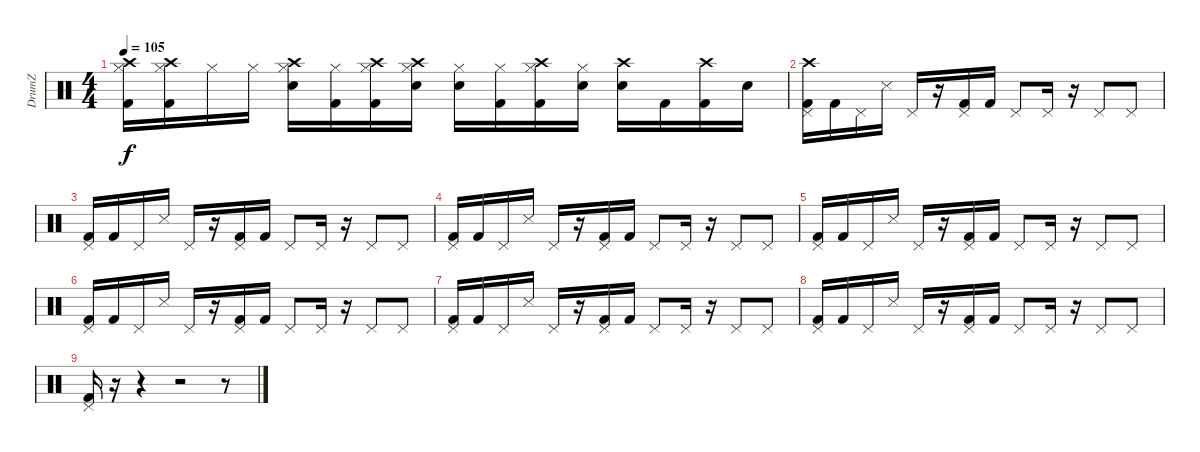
\track ("DrumZ" "DrumZ") {instrument percussion}
\staff {score}
\articulation defaults
\ts (4 4)
\tempo 105
\clef neutral
\ks c
("Crash high (hit)" "Hi-Hat (closed)" "Kick (hit) 2").16{dy f} ("Crash high (hit)" "Hi-Hat (closed)" "Kick (hit) 2").16 "Hi-Hat (closed)".16 "Hi-Hat (closed)".16 ("Crash high (hit)" "Hi-Hat (closed)" "Electric Snare (hit)").16 ("Hi-Hat (closed)" "Kick (hit) 2").16 ("Crash high (hit)" "Hi-Hat (closed)" "Kick (hit) 2").16 ("Crash high (hit)" "Hi-Hat (closed)" "Electric Snare (hit)").16 ("Hi-Hat (closed)" "Electric Snare (hit)").16 ("Hi-Hat (closed)" "Kick (hit) 2").16 ("Crash high (hit)" "Hi-Hat (closed)" "Kick (hit) 2").16 ("Hi-Hat (closed)" "Electric Snare (hit)").16 ("Crash high (hit)" "Electric Snare (hit)").16 "Kick (hit) 2".16 ("Crash high (hit)" "Kick (hit) 2").16 "Electric Snare (hit)".16 |
("Pedal Hi-Hat (hit)" "Crash high (hit)" "Kick (hit) 2").16 "Kick (hit) 2".16 "Pedal Hi-Hat (hit)".16 "Metronome (hit)".16 "Pedal Hi-Hat (hit)".16 r.16 ("Pedal Hi-Hat (hit)" "Kick (hit) 2").16 "Kick (hit) 2".16 "Pedal Hi-Hat (hit)".8 "Pedal Hi-Hat (hit)".16 r.16 "Pedal Hi-Hat (hit)".8 "Pedal Hi-Hat (hit)".8 |
("Pedal Hi-Hat (hit)" "Kick (hit) 2").16 "Kick (hit) 2".16 "Pedal Hi-Hat (hit)".16 "Metronome (hit)".16 "Pedal Hi-Hat (hit)".16 r.16 ("Pedal Hi-Hat (hit)" "Kick (hit) 2").16 "Kick (hit) 2".16 "Pedal Hi-Hat (hit)".8 "Pedal Hi-Hat (hit)".16 r.16 "Pedal Hi-Hat (hit)".8 "Pedal Hi-Hat (hit)".8 |
("Pedal Hi-Hat (hit)" "Kick (hit) 2").16 "Kick (hit) 2".16 "Pedal Hi-Hat (hit)".16 "Metronome (hit)".16 "Pedal Hi-Hat (hit)".16 r.16 ("Pedal Hi-Hat (hit)" "Kick (hit) 2").16 "Kick (hit) 2".16 "Pedal Hi-Hat (hit)".8 "Pedal Hi-Hat (hit)".16 r.16 "Pedal Hi-Hat (hit)".8 "Pedal Hi-Hat (hit)".8 |
("Pedal Hi-Hat (hit)" "Kick (hit) 2").16 "Kick (hit) 2".16 "Pedal Hi-Hat (hit)".16 "Metronome (hit)".16 "Pedal Hi-Hat (hit)".16 r.16 ("Pedal Hi-Hat (hit)" "Kick (hit) 2").16 "Kick (hit) 2".16 "Pedal Hi-Hat (hit)".8 "Pedal Hi-Hat (hit)".16 r.16 "Pedal Hi-Hat (hit)".8 "Pedal Hi-Hat (hit)".8 |
("Pedal Hi-Hat (hit)" "Kick (hit) 2").16 "Kick (hit) 2".16 "Pedal Hi-Hat (hit)".16 "Metronome (hit)".16 "Pedal Hi-Hat (hit)".16 r.16 ("Pedal Hi-Hat (hit)" "Kick (hit) 2").16 "Kick (hit) 2".16 "Pedal Hi-Hat (hit)".8 "Pedal Hi-Hat (hit)".16 r.16 "Pedal Hi-Hat (hit)".8 "Pedal Hi-Hat (hit)".8 |
("Pedal Hi-Hat (hit)" "Kick (hit) 2").16 "Kick (hit) 2".16 "Pedal Hi-Hat (hit)".16 "Metronome (hit)".16 "Pedal Hi-Hat (hit)".16 r.16 ("Pedal Hi-Hat (hit)" "Kick (hit) 2").16 "Kick (hit) 2".16 "Pedal Hi-Hat (hit)".8 "Pedal Hi-Hat (hit)".16 r.16 "Pedal Hi-Hat (hit)".8 "Pedal Hi-Hat (hit)".8 |
("Pedal Hi-Hat (hit)" "Kick (hit) 2").16 "Kick (hit) 2".16 "Pedal Hi-Hat (hit)".16 "Metronome (hit)".16 "Pedal Hi-Hat (hit)".16 r.16 ("Pedal Hi-Hat (hit)" "Kick (hit) 2").16 "Kick (hit) 2".16 "Pedal Hi-Hat (hit)".8 "Pedal Hi-Hat (hit)".16 r.16 "Pedal Hi-Hat (hit)".8 "Pedal Hi-Hat (hit)".8 |
("Pedal Hi-Hat (hit)" "Kick (hit) 2").16 r.16 r.4 r.2 r.8
